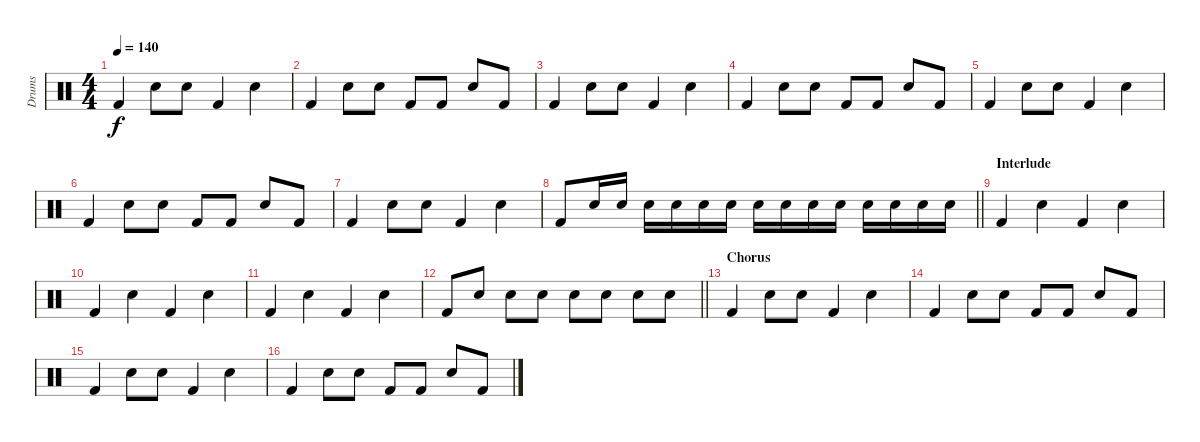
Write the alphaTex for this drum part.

\track ("Drums" "Drums") {instrument percussion}
\staff {score}
\articulation defaults
\ts (4 4)
\tempo 140
\clef neutral
\ks c "Kick (hit) 2".4{dy f} "Snare (hit) 2".8 "Snare (hit) 2".8 "Kick (hit) 2".4 "Snare (hit) 2".4
|
"Kick (hit) 2".4 "Snare (hit) 2".8 "Snare (hit) 2".8 "Kick (hit) 2".8 "Kick (hit) 2".8 "Snare (hit) 2".8 "Kick (hit) 2".8 |
"Kick (hit) 2".4 "Snare (hit) 2".8 "Snare (hit) 2".8 "Kick (hit) 2".4 "Snare (hit) 2".4 |
"Kick (hit) 2".4 "Snare (hit) 2".8 "Snare (hit) 2".8 "Kick (hit) 2".8 "Kick (hit) 2".8 "Snare (hit) 2".8 "Kick (hit) 2".8 |
"Kick (hit) 2".4 "Snare (hit) 2".8 "Snare (hit) 2".8 "Kick (hit) 2".4 "Snare (hit) 2".4 |
"Kick (hit) 2".4 "Snare (hit) 2".8 "Snare (hit) 2".8 "Kick (hit) 2".8 "Kick (hit) 2".8 "Snare (hit) 2".8 "Kick (hit) 2".8 |
"Kick (hit) 2".4 "Snare (hit) 2".8 "Snare (hit) 2".8 "Kick (hit) 2".4 "Snare (hit) 2".4 |
\barLineRight lightlight "Kick (hit) 2".8 "Snare (hit) 2".16 "Snare (hit) 2".16 "Snare (hit) 2".16 "Snare (hit) 2".16 "Snare (hit) 2".16 "Snare (hit) 2".16 "Snare (hit) 2".16 "Snare (hit) 2".16 "Snare (hit) 2".16 "Snare (hit) 2".16 "Snare (hit) 2".16 "Snare (hit) 2".16 "Snare (hit) 2".16 "Snare (hit) 2".16
|
\section ("" "Interlude")
"Kick (hit) 2".4 "Snare (hit) 2".4 "Kick (hit) 2".4 "Snare (hit) 2".4 |
"Kick (hit) 2".4 "Snare (hit) 2".4 "Kick (hit) 2".4 "Snare (hit) 2".4 |
"Kick (hit) 2".4 "Snare (hit) 2".4 "Kick (hit) 2".4 "Snare (hit) 2".4 |
\barLineRight lightlight "Kick (hit) 2".8 "Snare (hit) 2".8 "Snare (hit) 2".8 "Snare (hit) 2".8 "Snare (hit) 2".8 "Snare (hit) 2".8 "Snare (hit) 2".8 "Snare (hit) 2".8
|
\section ("" "Chorus")
"Kick (hit) 2".4 "Snare (hit) 2".8 "Snare (hit) 2".8 "Kick (hit) 2".4 "Snare (hit) 2".4 |
"Kick (hit) 2".4 "Snare (hit) 2".8 "Snare (hit) 2".8 "Kick (hit) 2".8 "Kick (hit) 2".8 "Snare (hit) 2".8 "Kick (hit) 2".8 |
"Kick (hit) 2".4 "Snare (hit) 2".8 "Snare (hit) 2".8 "Kick (hit) 2".4 "Snare (hit) 2".4 |
"Kick (hit) 2".4 "Snare (hit) 2".8 "Snare (hit) 2".8 "Kick (hit) 2".8 "Kick (hit) 2".8 "Snare (hit) 2".8 "Kick (hit) 2".8
